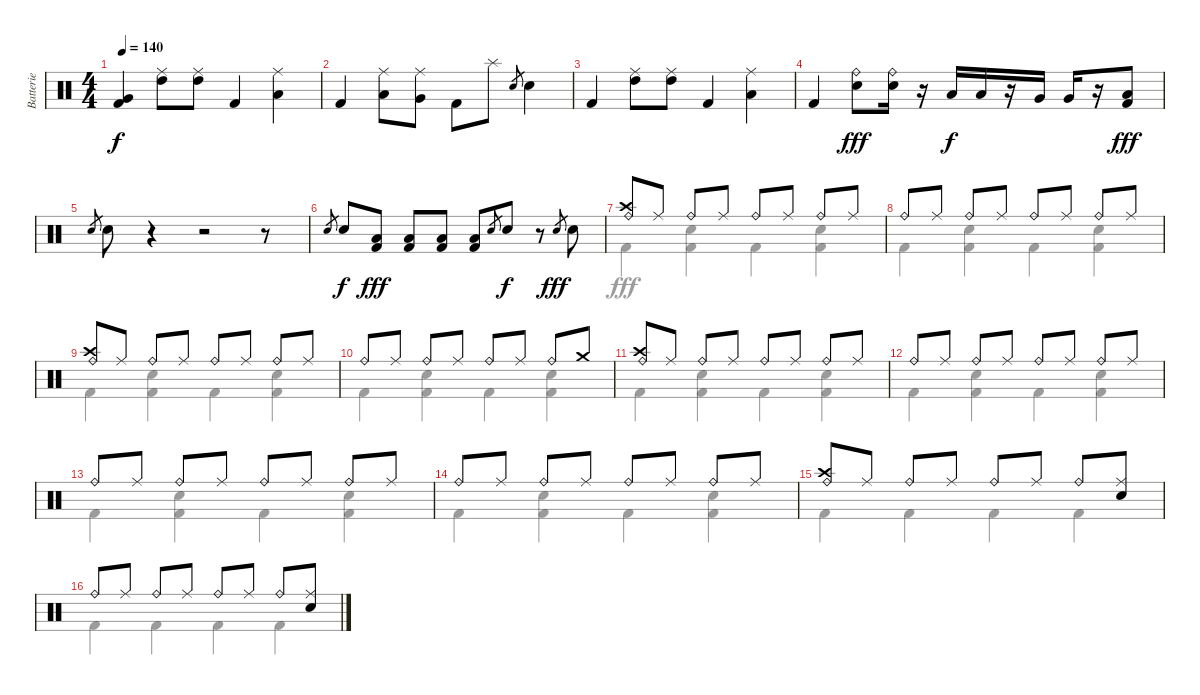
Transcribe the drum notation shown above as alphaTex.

\track ("Batterie" "Batterie") {instrument percussion}
\staff {score}
\articulation defaults
\voice
\ts (4 4)
\tempo 140
\clef neutral
\ks c
("Very Low Tom (hit)" "Kick (hit) 2").4{dy f} ("Ride (middle)" "High Tom (hit)").8 ("Ride (middle)" "High Tom (hit)").8 "Kick (hit) 2".4 ("Ride (middle)" "Low Tom (hit)").4 |
"Kick (hit) 2".4 ("Ride (middle)" "Low Tom (hit)").8 ("Ride (middle)" "Very Low Tom (hit)").8 "Kick (hit) 2".8 "Splash (hit)".8 "Electric Snare (hit)".8{gr} "Electric Snare (hit)".4 |
"Kick (hit) 2".4 ("Ride (middle)" "High Tom (hit)").8 ("Ride (middle)" "High Tom (hit)").8 "Kick (hit) 2".4 ("Ride (middle)" "Low Tom (hit)").4 |
"Kick (hit) 2".4 ("Ride (bell)" "Electric Snare (hit)").8{dy fff} ("Ride (bell)" "Electric Snare (hit)").16 r.16 "Low Tom (hit)".16{dy f} "Low Tom (hit)".16 r.16 "Very Low Tom (hit)".16 "Very Low Tom (hit)".16 r.16 ("Low Floor Tom (hit)" "Kick (hit) 2").8{dy fff} |
"Electric Snare (hit)".8{gr} "Electric Snare (hit)".8 r.4 r.2 r.8 |
"Electric Snare (hit)".8{gr} "Electric Snare (hit)".8{dy f} ("Low Floor Tom (hit)" "Kick (hit) 2").8{dy fff} ("Low Floor Tom (hit)" "Kick (hit) 2").8 ("Low Floor Tom (hit)" "Kick (hit) 2").8 ("Low Floor Tom (hit)" "Kick (hit) 2").8 "Electric Snare (hit)".8{gr} "Electric Snare (hit)".8{dy f} r.8 "Electric Snare (hit)".8{gr dy fff} "Electric Snare (hit)".8 |
("Crash high (hit)" "Ride (bell)").8 "Ride (middle)".8 "Ride (bell)".8 "Ride (middle)".8 "Ride (bell)".8 "Ride (middle)".8 "Ride (bell)".8 "Ride (middle)".8 |
"Ride (bell)".8 "Ride (middle)".8 "Ride (bell)".8 "Ride (middle)".8 "Ride (bell)".8 "Ride (middle)".8 "Ride (bell)".8 "Ride (middle)".8 |
("Crash high (hit)" "Ride (bell)").8 "Ride (middle)".8 "Ride (bell)".8 "Ride (middle)".8 "Ride (bell)".8 "Ride (middle)".8 "Ride (bell)".8 "Ride (middle)".8 |
"Ride (bell)".8 "Ride (middle)".8 "Ride (bell)".8 "Ride (middle)".8 "Ride (bell)".8 "Ride (middle)".8 "Ride (bell)".8 "Crash medium (hit)".8 |
("Crash high (hit)" "Ride (bell)").8 "Ride (middle)".8 "Ride (bell)".8 "Ride (middle)".8 "Ride (bell)".8 "Ride (middle)".8 "Ride (bell)".8 "Ride (middle)".8 |
"Ride (bell)".8 "Ride (middle)".8 "Ride (bell)".8 "Ride (middle)".8 "Ride (bell)".8 "Ride (middle)".8 "Ride (bell)".8 "Ride (middle)".8 |
"Ride (bell)".8 "Ride (middle)".8 "Ride (bell)".8 "Ride (middle)".8 "Ride (bell)".8 "Ride (middle)".8 "Ride (bell)".8 "Ride (middle)".8 |
"Ride (bell)".8 "Ride (middle)".8 "Ride (bell)".8 "Ride (middle)".8 "Ride (bell)".8 "Ride (middle)".8 "Ride (bell)".8 "Ride (middle)".8 |
("Crash high (hit)" "Ride (bell)").8 "Ride (middle)".8 "Ride (bell)".8 "Ride (middle)".8 "Ride (bell)".8 "Ride (middle)".8 "Ride (bell)".8 ("Ride (middle)" "Electric Snare (hit)").8 |
"Ride (bell)".8 "Ride (middle)".8 "Ride (bell)".8 "Ride (middle)".8 "Ride (bell)".8 "Ride (middle)".8 "Ride (bell)".8 ("Ride (middle)" "Electric Snare (hit)").8
\voice
\clef neutral
\ottava regular
\simile none
\ks c
|
|
|
|
|
|
"Kick (hit) 2".4 ("Electric Snare (hit)" "Kick (hit) 2").4 "Kick (hit) 2".4 ("Electric Snare (hit)" "Kick (hit) 2").4 |
"Kick (hit) 2".4 ("Electric Snare (hit)" "Kick (hit) 2").4 "Kick (hit) 2".4 ("Electric Snare (hit)" "Kick (hit) 2").4 |
"Kick (hit) 2".4 ("Electric Snare (hit)" "Kick (hit) 2").4 "Kick (hit) 2".4 ("Electric Snare (hit)" "Kick (hit) 2").4 |
"Kick (hit) 2".4 ("Electric Snare (hit)" "Kick (hit) 2").4 "Kick (hit) 2".4 ("Electric Snare (hit)" "Kick (hit) 2").4 |
"Kick (hit) 2".4 ("Electric Snare (hit)" "Kick (hit) 2").4 "Kick (hit) 2".4 ("Electric Snare (hit)" "Kick (hit) 2").4 |
"Kick (hit) 2".4 ("Electric Snare (hit)" "Kick (hit) 2").4 "Kick (hit) 2".4 ("Electric Snare (hit)" "Kick (hit) 2").4 |
"Kick (hit) 2".4 ("Electric Snare (hit)" "Kick (hit) 2").4 "Kick (hit) 2".4 ("Electric Snare (hit)" "Kick (hit) 2").4 |
"Kick (hit) 2".4 ("Electric Snare (hit)" "Kick (hit) 2").4 "Kick (hit) 2".4 ("Electric Snare (hit)" "Kick (hit) 2").4 |
"Kick (hit) 2".4{dy fff} "Kick (hit) 2".4 "Kick (hit) 2".4 "Kick (hit) 2".4 |
"Kick (hit) 2".4 "Kick (hit) 2".4 "Kick (hit) 2".4 "Kick (hit) 2".4
